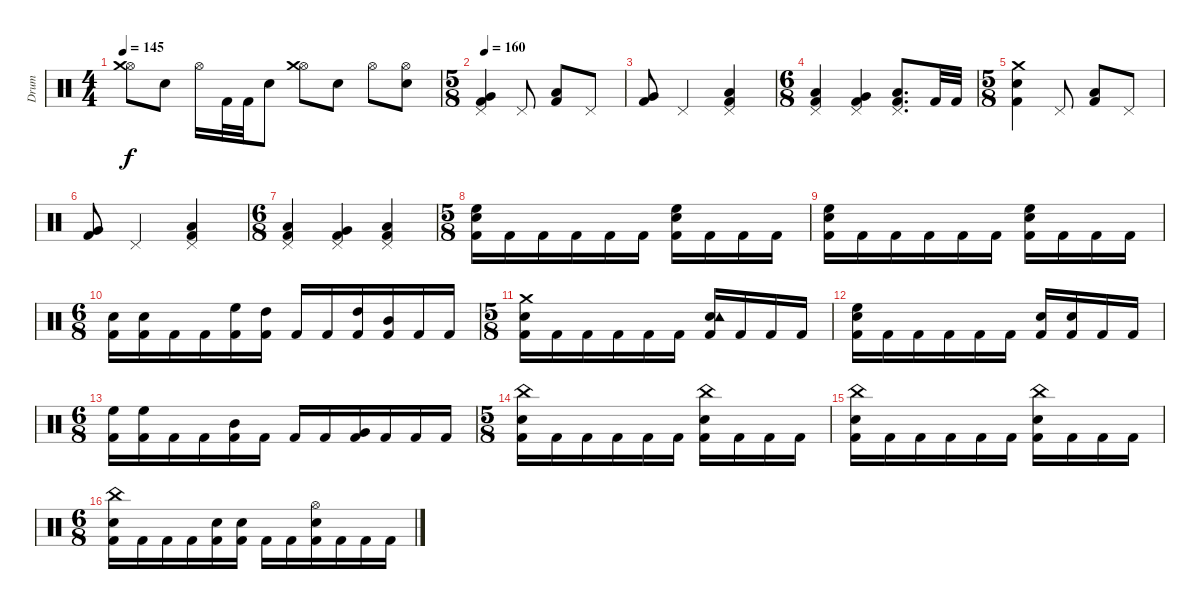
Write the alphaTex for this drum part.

\track ("Drum" "Drum") {instrument percussion}
\staff {score}
\articulation defaults
\ts (4 4)
\tempo 145
\clef neutral
\ks c
("Hi-Hat (open)" "Crash medium (hit)").8{dy f} "Electric Snare (hit)".8 "Hi-Hat (open)".16 "Kick (hit) 2".32 "Kick (hit) 2".32 "Electric Snare (hit)".8 ("Hi-Hat (open)" "Crash medium (hit)").8 "Electric Snare (hit)".8 "Hi-Hat (open)".8 ("Electric Snare (hit)" "Hi-Hat (open)").8 |
\ts (5 8)
\tempo 160
("Kick (hit) 2" "Pedal Hi-Hat (hit)" "Very Low Tom (hit)").4 "Pedal Hi-Hat (hit)".8 ("Low Floor Tom (hit)" "Kick (hit) 2").8 "Pedal Hi-Hat (hit)".8 |
("Very Low Tom (hit)" "Kick (hit) 2").8 "Pedal Hi-Hat (hit)".4 ("Low Floor Tom (hit)" "Kick (hit) 2" "Pedal Hi-Hat (hit)").4 |
\ts (6 8)
("Kick (hit) 2" "Low Tom (hit)" "Pedal Hi-Hat (hit)").4 ("Very Low Tom (hit)" "Kick (hit) 2" "Pedal Hi-Hat (hit)").4 ("Kick (hit) 2" "Low Floor Tom (hit)" "Pedal Hi-Hat (hit)").8{d} "Kick (hit) 2".32 "Kick (hit) 2".32 |
\ts (5 8)
("Kick (hit) 2" "Electric Snare (hit)" "Crash medium (hit)").4 "Pedal Hi-Hat (hit)".8 ("Low Floor Tom (hit)" "Kick (hit) 2").8 "Pedal Hi-Hat (hit)".8 |
("Very Low Tom (hit)" "Kick (hit) 2").8 "Pedal Hi-Hat (hit)".4 ("Low Floor Tom (hit)" "Kick (hit) 2" "Pedal Hi-Hat (hit)").4 |
\ts (6 8)
("Kick (hit) 2" "Low Tom (hit)" "Pedal Hi-Hat (hit)").4 ("Very Low Tom (hit)" "Kick (hit) 2" "Pedal Hi-Hat (hit)").4 ("Pedal Hi-Hat (hit)" "Low Floor Tom (hit)" "Kick (hit) 2").4 |
\ts (5 8)
("Kick (hit) 2" "High Floor Tom (hit)" "Electric Snare (hit)").16 "Kick (hit) 2".16 "Kick (hit) 2".16 "Kick (hit) 2".16 "Kick (hit) 2".16 "Kick (hit) 2".16 ("Kick (hit) 2" "Electric Snare (hit)" "High Floor Tom (hit)").16 "Kick (hit) 2".16 "Kick (hit) 2".16 "Kick (hit) 2".16 |
("Kick (hit) 2" "Electric Snare (hit)" "High Floor Tom (hit)").16 "Kick (hit) 2".16 "Kick (hit) 2".16 "Kick (hit) 2".16 "Kick (hit) 2".16 "Kick (hit) 2".16 ("Kick (hit) 2" "High Floor Tom (hit)" "Electric Snare (hit)").16 "Kick (hit) 2".16 "Kick (hit) 2".16 "Kick (hit) 2".16 |
\ts (6 8)
("Kick (hit) 2" "Electric Snare (hit)").16 ("Kick (hit) 2" "Electric Snare (hit)").16 "Kick (hit) 2".16 "Kick (hit) 2".16 ("Kick (hit) 2" "High Floor Tom (hit)").16 ("Kick (hit) 2" "High Tom (hit)").16 "Kick (hit) 2".16 "Kick (hit) 2".16 ("Kick (hit) 2" "High Tom (hit)").16 ("Kick (hit) 2" "Mid Tom (hit)").16 "Kick (hit) 2".16 "Kick (hit) 2".16 |
\ts (5 8)
("Kick (hit) 2" "Crash medium (hit)" "Electric Snare (hit)").16 "Kick (hit) 2".16 "Kick (hit) 2".16 "Kick (hit) 2".16 "Kick (hit) 2".16 "Kick (hit) 2".16 ("Kick (hit) 2" "Electric Snare (hit)" "Tambourine (hit)").16 "Kick (hit) 2".16 "Kick (hit) 2".16 "Kick (hit) 2".16 |
("Kick (hit) 2" "Electric Snare (hit)" "High Floor Tom (hit)").16 "Kick (hit) 2".16 "Kick (hit) 2".16 "Kick (hit) 2".16 "Kick (hit) 2".16 "Kick (hit) 2".16 ("Kick (hit) 2" "Electric Snare (hit)").16 ("Kick (hit) 2" "Electric Snare (hit)").16 "Kick (hit) 2".16 "Kick (hit) 2".16 |
\ts (6 8)
("Kick (hit) 2" "High Floor Tom (hit)").16 ("Kick (hit) 2" "High Floor Tom (hit)").16 "Kick (hit) 2".16 "Kick (hit) 2".16 ("Kick (hit) 2" "Mid Tom (hit)").16 "Kick (hit) 2".16 "Kick (hit) 2".16 "Kick (hit) 2".16 ("Kick (hit) 2" "Very Low Tom (hit)").16 "Kick (hit) 2".16 "Kick (hit) 2".16 "Kick (hit) 2".16 |
\ts (5 8)
("Kick (hit) 2" "China (hit)" "Electric Snare (hit)").16 "Kick (hit) 2".16 "Kick (hit) 2".16 "Kick (hit) 2".16 "Kick (hit) 2".16 "Kick (hit) 2".16 ("Kick (hit) 2" "Electric Snare (hit)" "China (hit)").16 "Kick (hit) 2".16 "Kick (hit) 2".16 "Kick (hit) 2".16 |
("Kick (hit) 2" "Electric Snare (hit)" "China (hit)").16 "Kick (hit) 2".16 "Kick (hit) 2".16 "Kick (hit) 2".16 "Kick (hit) 2".16 "Kick (hit) 2".16 ("Kick (hit) 2" "Electric Snare (hit)" "China (hit)").16 "Kick (hit) 2".16 "Kick (hit) 2".16 "Kick (hit) 2".16 |
\ts (6 8)
("Kick (hit) 2" "Electric Snare (hit)" "China (hit)").16 "Kick (hit) 2".16 "Kick (hit) 2".16 "Kick (hit) 2".16 ("Kick (hit) 2" "Electric Snare (hit)").16 ("Kick (hit) 2" "Electric Snare (hit)").16 "Kick (hit) 2".16 "Kick (hit) 2".16 ("Kick (hit) 2" "Electric Snare (hit)" "Hi-Hat (open)").16 "Kick (hit) 2".16 "Kick (hit) 2".16 "Kick (hit) 2".16
